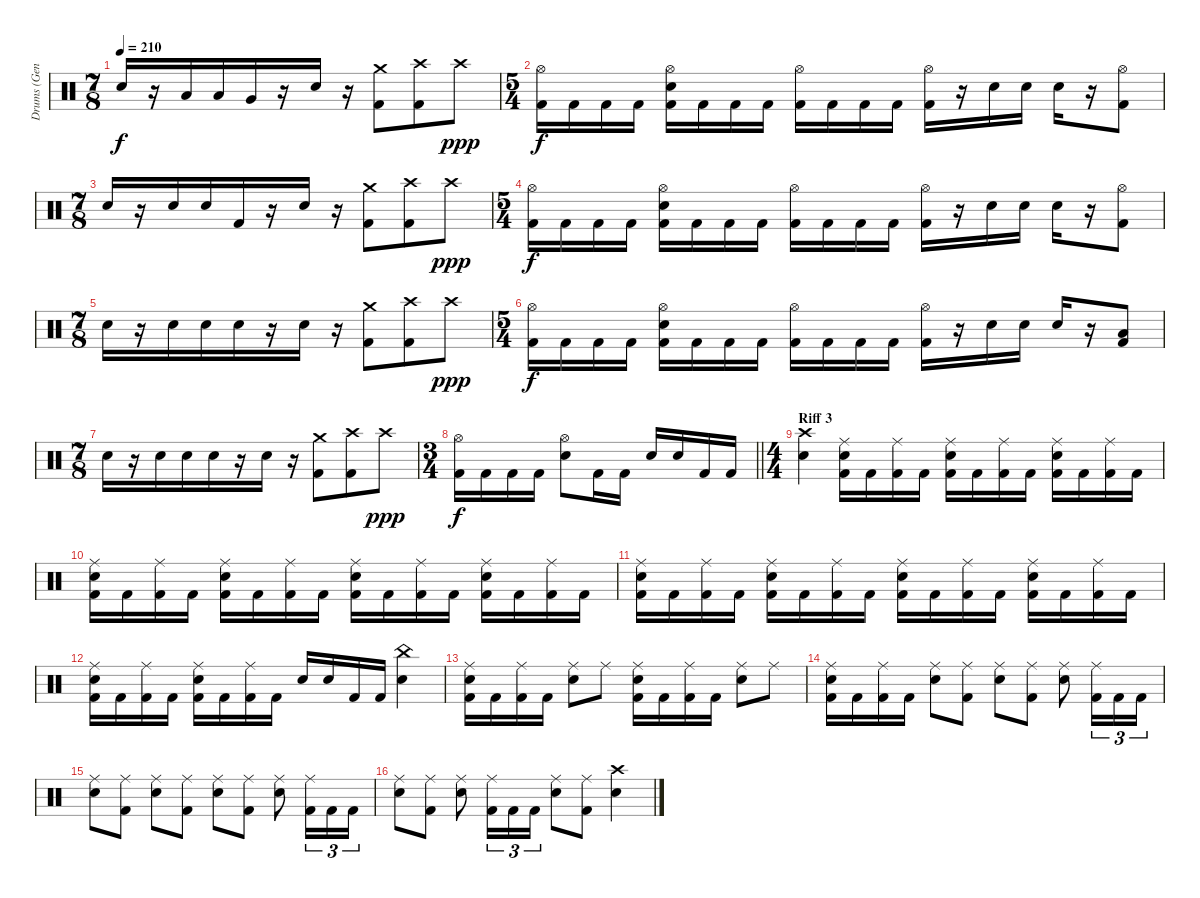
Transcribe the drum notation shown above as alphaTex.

\track ("Drums (Gene Hoglan)" "Drums (Gen") {instrument percussion}
\staff {score}
\articulation defaults
\ts (7 8)
\tempo 210
\clef neutral
\ks c "Snare (hit) 2".16{dy f}
r.16 "Low Tom (hit)".16 "Low Tom (hit)".16 "Very Low Tom (hit)".16 r.16 "Snare (hit) 2".16 r.16 ("Crash medium (hit)" "Kick (hit) 2").8 ("Crash high (hit)" "Kick (hit) 2").8 "Crash high (hit)".8{dy ppp} |
\ts (5 4)
("Hi-Hat (open)" "Kick (hit) 2").16{dy f} "Kick (hit) 2".16 "Kick (hit) 2".16 "Kick (hit) 2".16 ("Hi-Hat (open)" "Snare (hit) 2" "Kick (hit) 2").16 "Kick (hit) 2".16 "Kick (hit) 2".16 "Kick (hit) 2".16 ("Hi-Hat (open)" "Kick (hit) 2").16 "Kick (hit) 2".16 "Kick (hit) 2".16 "Kick (hit) 2".16 ("Hi-Hat (open)" "Kick (hit) 2").16 r.16 "Snare (hit) 2".16 "Snare (hit) 2".16 "Snare (hit) 2".16 r.16 ("Hi-Hat (open)" "Kick (hit) 2").8 |
\ts (7 8)
"Snare (hit) 2".16 r.16 "Snare (hit) 2".16 "Snare (hit) 2".16 "Kick (hit) 2".16 r.16 "Snare (hit) 2".16 r.16 ("Crash medium (hit)" "Kick (hit) 2").8 ("Crash high (hit)" "Kick (hit) 2").8 "Crash high (hit)".8{dy ppp} |
\ts (5 4)
("Hi-Hat (open)" "Kick (hit) 2").16{dy f} "Kick (hit) 2".16 "Kick (hit) 2".16 "Kick (hit) 2".16 ("Hi-Hat (open)" "Snare (hit) 2" "Kick (hit) 2").16 "Kick (hit) 2".16 "Kick (hit) 2".16 "Kick (hit) 2".16 ("Hi-Hat (open)" "Kick (hit) 2").16 "Kick (hit) 2".16 "Kick (hit) 2".16 "Kick (hit) 2".16 ("Hi-Hat (open)" "Kick (hit) 2").16 r.16 "Snare (hit) 2".16 "Snare (hit) 2".16 "Snare (hit) 2".16 r.16 ("Hi-Hat (open)" "Kick (hit) 2").8 |
\ts (7 8)
"Snare (hit) 2".16 r.16 "Snare (hit) 2".16 "Snare (hit) 2".16 "Snare (hit) 2".16 r.16 "Snare (hit) 2".16 r.16 ("Crash medium (hit)" "Kick (hit) 2").8 ("Crash high (hit)" "Kick (hit) 2").8 "Crash high (hit)".8{dy ppp} |
\ts (5 4)
("Hi-Hat (open)" "Kick (hit) 2").16{dy f} "Kick (hit) 2".16 "Kick (hit) 2".16 "Kick (hit) 2".16 ("Hi-Hat (open)" "Snare (hit) 2" "Kick (hit) 2").16 "Kick (hit) 2".16 "Kick (hit) 2".16 "Kick (hit) 2".16 ("Hi-Hat (open)" "Kick (hit) 2").16 "Kick (hit) 2".16 "Kick (hit) 2".16 "Kick (hit) 2".16 ("Hi-Hat (open)" "Kick (hit) 2").16 r.16 "Snare (hit) 2".16 "Snare (hit) 2".16 "Snare (hit) 2".16 r.16 ("Low Floor Tom (hit)" "Kick (hit) 2").8 |
\ts (7 8)
"Snare (hit) 2".16 r.16 "Snare (hit) 2".16 "Snare (hit) 2".16 "Snare (hit) 2".16 r.16 "Snare (hit) 2".16 r.16 ("Crash medium (hit)" "Kick (hit) 2").8 ("Crash high (hit)" "Kick (hit) 2").8 "Crash high (hit)".8{dy ppp} |
\ts (3 4)
\barLineRight lightlight
("Hi-Hat (open)" "Kick (hit) 2").16{dy f} "Kick (hit) 2".16 "Kick (hit) 2".16 "Kick (hit) 2".16 ("Hi-Hat (open)" "Snare (hit) 2").8 "Kick (hit) 2".16 "Kick (hit) 2".16 "Snare (hit) 2".16 "Snare (hit) 2".16 "Kick (hit) 2".16 "Kick (hit) 2".16 |
\ts (4 4)
\section ("" "Riff 3")
("Crash high (hit)" "Snare (hit) 2").4 ("Ride (middle)" "Snare (hit) 2" "Kick (hit) 2").16 "Kick (hit) 2".16 ("Ride (middle)" "Kick (hit) 2").16 "Kick (hit) 2".16 ("Ride (middle)" "Snare (hit) 2" "Kick (hit) 2").16 "Kick (hit) 2".16 ("Ride (middle)" "Kick (hit) 2").16 "Kick (hit) 2".16 ("Ride (middle)" "Snare (hit) 2" "Kick (hit) 2").16 "Kick (hit) 2".16 ("Ride (middle)" "Kick (hit) 2").16 "Kick (hit) 2".16 |
("Ride (middle)" "Snare (hit) 2" "Kick (hit) 2").16 "Kick (hit) 2".16 ("Ride (middle)" "Kick (hit) 2").16 "Kick (hit) 2".16 ("Ride (middle)" "Snare (hit) 2" "Kick (hit) 2").16 "Kick (hit) 2".16 ("Ride (middle)" "Kick (hit) 2").16 "Kick (hit) 2".16 ("Ride (middle)" "Snare (hit) 2" "Kick (hit) 2").16 "Kick (hit) 2".16 ("Ride (middle)" "Kick (hit) 2").16 "Kick (hit) 2".16 ("Ride (middle)" "Snare (hit) 2" "Kick (hit) 2").16 "Kick (hit) 2".16 ("Ride (middle)" "Kick (hit) 2").16 "Kick (hit) 2".16 |
("Ride (middle)" "Snare (hit) 2" "Kick (hit) 2").16 "Kick (hit) 2".16 ("Ride (middle)" "Kick (hit) 2").16 "Kick (hit) 2".16 ("Ride (middle)" "Snare (hit) 2" "Kick (hit) 2").16 "Kick (hit) 2".16 ("Ride (middle)" "Kick (hit) 2").16 "Kick (hit) 2".16 ("Ride (middle)" "Snare (hit) 2" "Kick (hit) 2").16 "Kick (hit) 2".16 ("Ride (middle)" "Kick (hit) 2").16 "Kick (hit) 2".16 ("Ride (middle)" "Snare (hit) 2" "Kick (hit) 2").16 "Kick (hit) 2".16 ("Ride (middle)" "Kick (hit) 2").16 "Kick (hit) 2".16 |
("Ride (middle)" "Snare (hit) 2" "Kick (hit) 2").16 "Kick (hit) 2".16 ("Ride (middle)" "Kick (hit) 2").16 "Kick (hit) 2".16 ("Ride (middle)" "Snare (hit) 2" "Kick (hit) 2").16 "Kick (hit) 2".16 ("Ride (middle)" "Kick (hit) 2").16 "Kick (hit) 2".16 "Snare (hit) 2".16 "Snare (hit) 2".16 "Kick (hit) 2".16 "Kick (hit) 2".16 ("China (hit)" "Snare (hit) 2").4 |
("Ride (middle)" "Snare (hit) 2" "Kick (hit) 2").16 "Kick (hit) 2".16 ("Ride (middle)" "Kick (hit) 2").16 "Kick (hit) 2".16 ("Ride (middle)" "Snare (hit) 2").8 "Ride (middle)".8 ("Ride (middle)" "Snare (hit) 2" "Kick (hit) 2").16 "Kick (hit) 2".16 ("Ride (middle)" "Kick (hit) 2").16 "Kick (hit) 2".16 ("Ride (middle)" "Snare (hit) 2").8 "Ride (middle)".8 |
("Ride (middle)" "Snare (hit) 2" "Kick (hit) 2").16 "Kick (hit) 2".16 ("Ride (middle)" "Kick (hit) 2").16 "Kick (hit) 2".16 ("Ride (middle)" "Snare (hit) 2").8 ("Ride (middle)" "Kick (hit) 2").8 ("Ride (middle)" "Snare (hit) 2").8 ("Ride (middle)" "Kick (hit) 2").8 ("Ride (middle)" "Snare (hit) 2").8 ("Ride (middle)" "Kick (hit) 2").16{tu (3 2)} "Kick (hit) 2".16{tu (3 2)} "Kick (hit) 2".16{tu (3 2)} |
("Ride (middle)" "Snare (hit) 2").8 ("Ride (middle)" "Kick (hit) 2").8 ("Ride (middle)" "Snare (hit) 2").8 ("Ride (middle)" "Kick (hit) 2").8 ("Ride (middle)" "Snare (hit) 2").8 ("Ride (middle)" "Kick (hit) 2").8 ("Ride (middle)" "Snare (hit) 2").8 ("Ride (middle)" "Kick (hit) 2").16{tu (3 2)} "Kick (hit) 2".16{tu (3 2)} "Kick (hit) 2".16{tu (3 2)} |
("Ride (middle)" "Snare (hit) 2").8 ("Ride (middle)" "Kick (hit) 2").8 ("Ride (middle)" "Snare (hit) 2").8 ("Ride (middle)" "Kick (hit) 2").16{tu (3 2)} "Kick (hit) 2".16{tu (3 2)} "Kick (hit) 2".16{tu (3 2)} ("Ride (middle)" "Snare (hit) 2").8 ("Ride (middle)" "Kick (hit) 2").8 ("Crash high (hit)" "Snare (hit) 2").4
